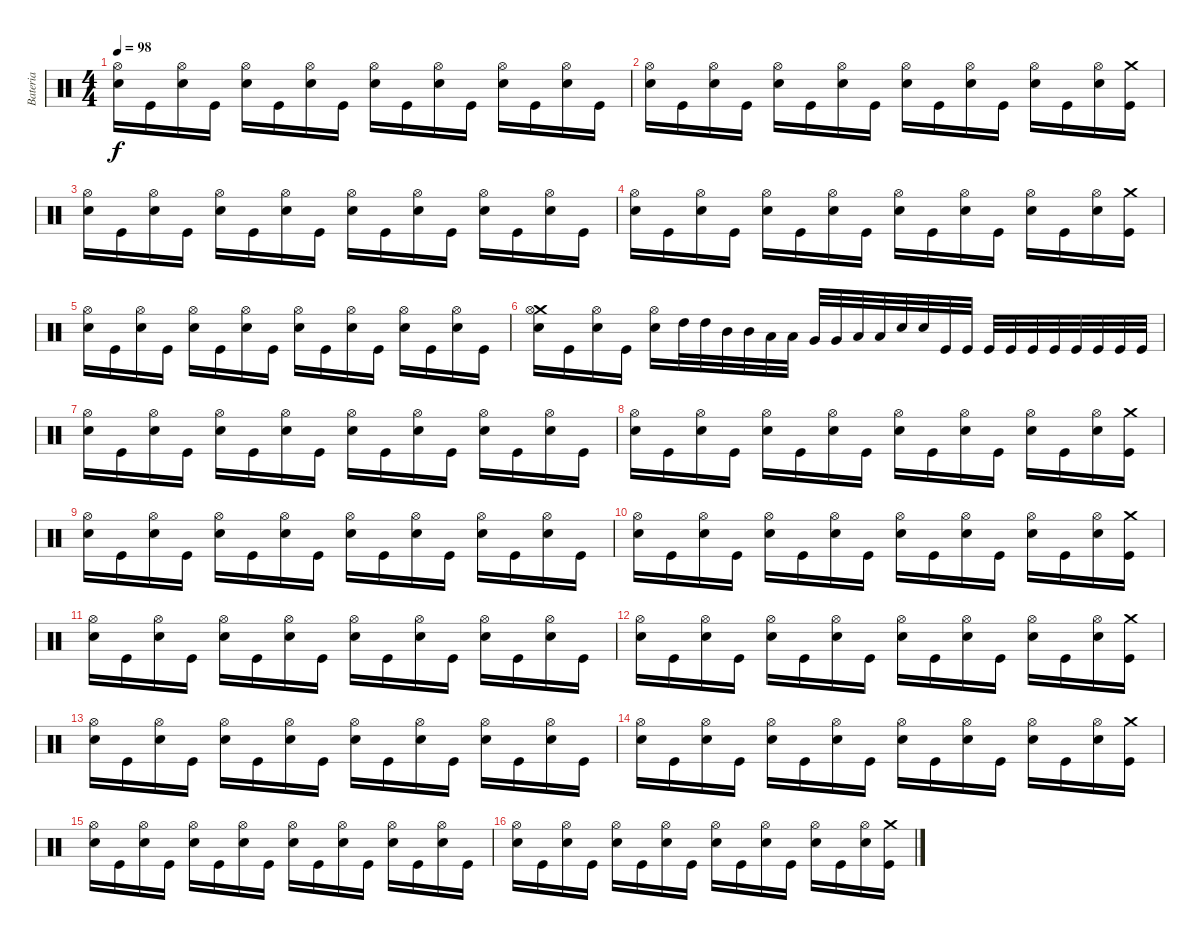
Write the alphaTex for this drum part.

\track ("Bateria" "Bateria") {instrument percussion}
\staff {score}
\articulation defaults
\ts (4 4)
\tempo 98
\clef neutral
\ks c
("Electric Snare (hit)" "Hi-Hat (open)").16{dy f} "Kick (hit)".16 ("Electric Snare (hit)" "Hi-Hat (open)").16 "Kick (hit)".16 ("Electric Snare (hit)" "Hi-Hat (open)").16 "Kick (hit)".16 ("Electric Snare (hit)" "Hi-Hat (open)").16 "Kick (hit)".16 ("Electric Snare (hit)" "Hi-Hat (open)").16 "Kick (hit)".16 ("Electric Snare (hit)" "Hi-Hat (open)").16 "Kick (hit)".16 ("Electric Snare (hit)" "Hi-Hat (open)").16 "Kick (hit)".16 ("Electric Snare (hit)" "Hi-Hat (open)").16 "Kick (hit)".16 |
("Electric Snare (hit)" "Hi-Hat (open)").16 "Kick (hit)".16 ("Electric Snare (hit)" "Hi-Hat (open)").16 "Kick (hit)".16 ("Electric Snare (hit)" "Hi-Hat (open)").16 "Kick (hit)".16 ("Electric Snare (hit)" "Hi-Hat (open)").16 "Kick (hit)".16 ("Electric Snare (hit)" "Hi-Hat (open)").16 "Kick (hit)".16 ("Electric Snare (hit)" "Hi-Hat (open)").16 "Kick (hit)".16 ("Electric Snare (hit)" "Hi-Hat (open)").16 "Kick (hit)".16 ("Electric Snare (hit)" "Hi-Hat (open)").16 ("Crash medium (hit)" "Kick (hit)").16 |
("Electric Snare (hit)" "Hi-Hat (open)").16 "Kick (hit)".16 ("Electric Snare (hit)" "Hi-Hat (open)").16 "Kick (hit)".16 ("Electric Snare (hit)" "Hi-Hat (open)").16 "Kick (hit)".16 ("Electric Snare (hit)" "Hi-Hat (open)").16 "Kick (hit)".16 ("Electric Snare (hit)" "Hi-Hat (open)").16 "Kick (hit)".16 ("Electric Snare (hit)" "Hi-Hat (open)").16 "Kick (hit)".16 ("Electric Snare (hit)" "Hi-Hat (open)").16 "Kick (hit)".16 ("Electric Snare (hit)" "Hi-Hat (open)").16 "Kick (hit)".16 |
("Electric Snare (hit)" "Hi-Hat (open)").16 "Kick (hit)".16 ("Electric Snare (hit)" "Hi-Hat (open)").16 "Kick (hit)".16 ("Electric Snare (hit)" "Hi-Hat (open)").16 "Kick (hit)".16 ("Electric Snare (hit)" "Hi-Hat (open)").16 "Kick (hit)".16 ("Electric Snare (hit)" "Hi-Hat (open)").16 "Kick (hit)".16 ("Electric Snare (hit)" "Hi-Hat (open)").16 "Kick (hit)".16 ("Electric Snare (hit)" "Hi-Hat (open)").16 "Kick (hit)".16 ("Electric Snare (hit)" "Hi-Hat (open)").16 ("Crash medium (hit)" "Kick (hit)").16 |
("Electric Snare (hit)" "Hi-Hat (open)").16 "Kick (hit)".16 ("Electric Snare (hit)" "Hi-Hat (open)").16 "Kick (hit)".16 ("Electric Snare (hit)" "Hi-Hat (open)").16 "Kick (hit)".16 ("Electric Snare (hit)" "Hi-Hat (open)").16 "Kick (hit)".16 ("Electric Snare (hit)" "Hi-Hat (open)").16 "Kick (hit)".16 ("Electric Snare (hit)" "Hi-Hat (open)").16 "Kick (hit)".16 ("Electric Snare (hit)" "Hi-Hat (open)").16 "Kick (hit)".16 ("Electric Snare (hit)" "Hi-Hat (open)").16 "Kick (hit)".16 |
("Crash medium (hit)" "Electric Snare (hit)" "Hi-Hat (open)").16 "Kick (hit)".16 ("Electric Snare (hit)" "Hi-Hat (open)").16 "Kick (hit)".16 ("Electric Snare (hit)" "Hi-Hat (open)").16 "High Tom (hit)".32 "High Tom (hit)".32 "Mid Tom (hit)".32 "Mid Tom (hit)".32 "Low Tom (hit)".32 "Low Tom (hit)".32 "Very Low Tom (hit)".32 "Very Low Tom (hit)".32 "Low Floor Tom (hit)".32 "Low Floor Tom (hit)".32 "Electric Snare (hit)".32 "Electric Snare (hit)".32 "Kick (hit)".32 "Kick (hit)".32 "Kick (hit)".32 "Kick (hit)".32 "Kick (hit)".32 "Kick (hit)".32 "Kick (hit)".32 "Kick (hit)".32 "Kick (hit)".32 "Kick (hit)".32 |
("Electric Snare (hit)" "Hi-Hat (open)").16 "Kick (hit)".16 ("Electric Snare (hit)" "Hi-Hat (open)").16 "Kick (hit)".16 ("Electric Snare (hit)" "Hi-Hat (open)").16 "Kick (hit)".16 ("Electric Snare (hit)" "Hi-Hat (open)").16 "Kick (hit)".16 ("Electric Snare (hit)" "Hi-Hat (open)").16 "Kick (hit)".16 ("Electric Snare (hit)" "Hi-Hat (open)").16 "Kick (hit)".16 ("Electric Snare (hit)" "Hi-Hat (open)").16 "Kick (hit)".16 ("Electric Snare (hit)" "Hi-Hat (open)").16 "Kick (hit)".16 |
("Electric Snare (hit)" "Hi-Hat (open)").16 "Kick (hit)".16 ("Electric Snare (hit)" "Hi-Hat (open)").16 "Kick (hit)".16 ("Electric Snare (hit)" "Hi-Hat (open)").16 "Kick (hit)".16 ("Electric Snare (hit)" "Hi-Hat (open)").16 "Kick (hit)".16 ("Electric Snare (hit)" "Hi-Hat (open)").16 "Kick (hit)".16 ("Electric Snare (hit)" "Hi-Hat (open)").16 "Kick (hit)".16 ("Electric Snare (hit)" "Hi-Hat (open)").16 "Kick (hit)".16 ("Electric Snare (hit)" "Hi-Hat (open)").16 ("Crash medium (hit)" "Kick (hit)").16 |
("Electric Snare (hit)" "Hi-Hat (open)").16 "Kick (hit)".16 ("Electric Snare (hit)" "Hi-Hat (open)").16 "Kick (hit)".16 ("Electric Snare (hit)" "Hi-Hat (open)").16 "Kick (hit)".16 ("Electric Snare (hit)" "Hi-Hat (open)").16 "Kick (hit)".16 ("Electric Snare (hit)" "Hi-Hat (open)").16 "Kick (hit)".16 ("Electric Snare (hit)" "Hi-Hat (open)").16 "Kick (hit)".16 ("Electric Snare (hit)" "Hi-Hat (open)").16 "Kick (hit)".16 ("Electric Snare (hit)" "Hi-Hat (open)").16 "Kick (hit)".16 |
("Electric Snare (hit)" "Hi-Hat (open)").16 "Kick (hit)".16 ("Electric Snare (hit)" "Hi-Hat (open)").16 "Kick (hit)".16 ("Electric Snare (hit)" "Hi-Hat (open)").16 "Kick (hit)".16 ("Electric Snare (hit)" "Hi-Hat (open)").16 "Kick (hit)".16 ("Electric Snare (hit)" "Hi-Hat (open)").16 "Kick (hit)".16 ("Electric Snare (hit)" "Hi-Hat (open)").16 "Kick (hit)".16 ("Electric Snare (hit)" "Hi-Hat (open)").16 "Kick (hit)".16 ("Electric Snare (hit)" "Hi-Hat (open)").16 ("Crash medium (hit)" "Kick (hit)").16 |
("Electric Snare (hit)" "Hi-Hat (open)").16 "Kick (hit)".16 ("Electric Snare (hit)" "Hi-Hat (open)").16 "Kick (hit)".16 ("Electric Snare (hit)" "Hi-Hat (open)").16 "Kick (hit)".16 ("Electric Snare (hit)" "Hi-Hat (open)").16 "Kick (hit)".16 ("Electric Snare (hit)" "Hi-Hat (open)").16 "Kick (hit)".16 ("Electric Snare (hit)" "Hi-Hat (open)").16 "Kick (hit)".16 ("Electric Snare (hit)" "Hi-Hat (open)").16 "Kick (hit)".16 ("Electric Snare (hit)" "Hi-Hat (open)").16 "Kick (hit)".16 |
("Electric Snare (hit)" "Hi-Hat (open)").16 "Kick (hit)".16 ("Electric Snare (hit)" "Hi-Hat (open)").16 "Kick (hit)".16 ("Electric Snare (hit)" "Hi-Hat (open)").16 "Kick (hit)".16 ("Electric Snare (hit)" "Hi-Hat (open)").16 "Kick (hit)".16 ("Electric Snare (hit)" "Hi-Hat (open)").16 "Kick (hit)".16 ("Electric Snare (hit)" "Hi-Hat (open)").16 "Kick (hit)".16 ("Electric Snare (hit)" "Hi-Hat (open)").16 "Kick (hit)".16 ("Electric Snare (hit)" "Hi-Hat (open)").16 ("Crash medium (hit)" "Kick (hit)").16 |
("Electric Snare (hit)" "Hi-Hat (open)").16 "Kick (hit)".16 ("Electric Snare (hit)" "Hi-Hat (open)").16 "Kick (hit)".16 ("Electric Snare (hit)" "Hi-Hat (open)").16 "Kick (hit)".16 ("Electric Snare (hit)" "Hi-Hat (open)").16 "Kick (hit)".16 ("Electric Snare (hit)" "Hi-Hat (open)").16 "Kick (hit)".16 ("Electric Snare (hit)" "Hi-Hat (open)").16 "Kick (hit)".16 ("Electric Snare (hit)" "Hi-Hat (open)").16 "Kick (hit)".16 ("Electric Snare (hit)" "Hi-Hat (open)").16 "Kick (hit)".16 |
("Electric Snare (hit)" "Hi-Hat (open)").16 "Kick (hit)".16 ("Electric Snare (hit)" "Hi-Hat (open)").16 "Kick (hit)".16 ("Electric Snare (hit)" "Hi-Hat (open)").16 "Kick (hit)".16 ("Electric Snare (hit)" "Hi-Hat (open)").16 "Kick (hit)".16 ("Electric Snare (hit)" "Hi-Hat (open)").16 "Kick (hit)".16 ("Electric Snare (hit)" "Hi-Hat (open)").16 "Kick (hit)".16 ("Electric Snare (hit)" "Hi-Hat (open)").16 "Kick (hit)".16 ("Electric Snare (hit)" "Hi-Hat (open)").16 ("Crash medium (hit)" "Kick (hit)").16 |
("Electric Snare (hit)" "Hi-Hat (open)").16 "Kick (hit)".16 ("Electric Snare (hit)" "Hi-Hat (open)").16 "Kick (hit)".16 ("Electric Snare (hit)" "Hi-Hat (open)").16 "Kick (hit)".16 ("Electric Snare (hit)" "Hi-Hat (open)").16 "Kick (hit)".16 ("Electric Snare (hit)" "Hi-Hat (open)").16 "Kick (hit)".16 ("Electric Snare (hit)" "Hi-Hat (open)").16 "Kick (hit)".16 ("Electric Snare (hit)" "Hi-Hat (open)").16 "Kick (hit)".16 ("Electric Snare (hit)" "Hi-Hat (open)").16 "Kick (hit)".16 |
("Electric Snare (hit)" "Hi-Hat (open)").16 "Kick (hit)".16 ("Electric Snare (hit)" "Hi-Hat (open)").16 "Kick (hit)".16 ("Electric Snare (hit)" "Hi-Hat (open)").16 "Kick (hit)".16 ("Electric Snare (hit)" "Hi-Hat (open)").16 "Kick (hit)".16 ("Electric Snare (hit)" "Hi-Hat (open)").16 "Kick (hit)".16 ("Electric Snare (hit)" "Hi-Hat (open)").16 "Kick (hit)".16 ("Electric Snare (hit)" "Hi-Hat (open)").16 "Kick (hit)".16 ("Electric Snare (hit)" "Hi-Hat (open)").16 ("Crash medium (hit)" "Kick (hit)").16
